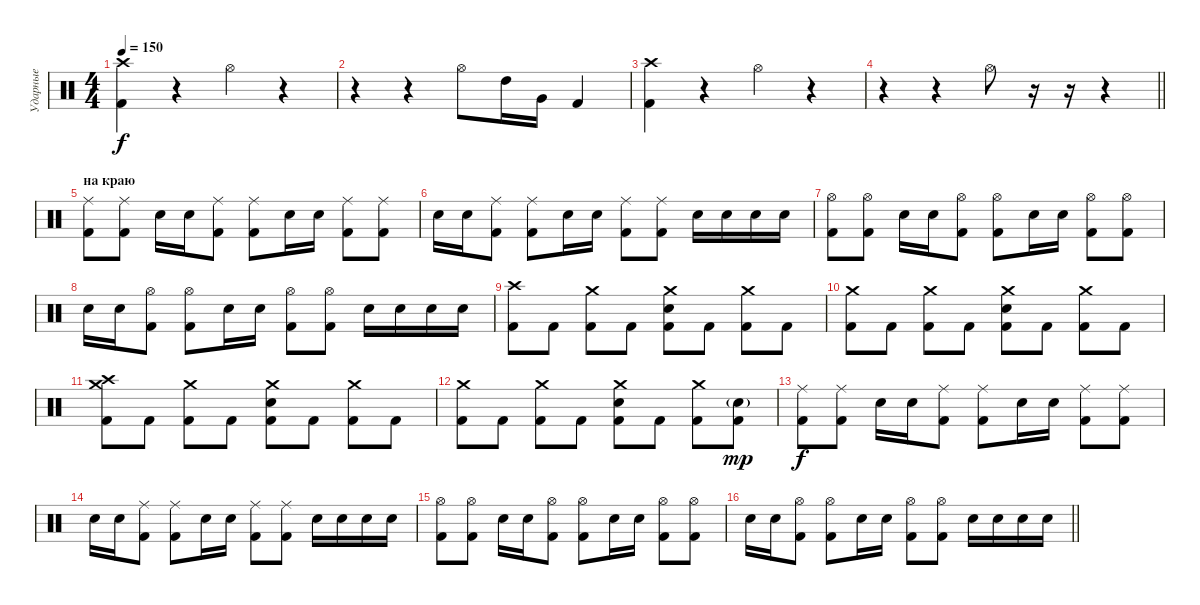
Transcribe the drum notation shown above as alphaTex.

\track ("Ударные" "Ударные") {instrument percussion}
\staff {score}
\articulation defaults
\ts (4 4)
\tempo 150
\clef neutral
\ks c
("Crash high (hit)" "Kick (hit) 2").4{dy f} r.4 "Hi-Hat (open)".4 r.4 |
r.4 r.4 "Hi-Hat (open)".8 "High Tom (hit)".16 "Very Low Tom (hit)".16 "Kick (hit) 2".4 |
("Crash high (hit)" "Kick (hit) 2").4 r.4 "Hi-Hat (open)".4 r.4 |
\barLineRight lightlight
r.4 r.4 "Hi-Hat (open)".8 r.16 r.16 r.4 |
\section ("" "на краю")
("Ride (middle)" "Kick (hit) 2").8 ("Ride (middle)" "Kick (hit) 2").8 "Electric Snare (hit)".16 "Electric Snare (hit)".16 ("Ride (middle)" "Kick (hit) 2").8 ("Ride (middle)" "Kick (hit) 2").8 "Electric Snare (hit)".16 "Electric Snare (hit)".16 ("Ride (middle)" "Kick (hit) 2").8 ("Ride (middle)" "Kick (hit) 2").8 |
"Electric Snare (hit)".16 "Electric Snare (hit)".16 ("Ride (middle)" "Kick (hit) 2").8 ("Ride (middle)" "Kick (hit) 2").8 "Electric Snare (hit)".16 "Electric Snare (hit)".16 ("Ride (middle)" "Kick (hit) 2").8 ("Ride (middle)" "Kick (hit) 2").8 "Electric Snare (hit)".16 "Electric Snare (hit)".16 "Electric Snare (hit)".16 "Electric Snare (hit)".16 |
("Hi-Hat (open)" "Kick (hit) 2").8 ("Hi-Hat (open)" "Kick (hit) 2").8 "Electric Snare (hit)".16 "Electric Snare (hit)".16 ("Hi-Hat (open)" "Kick (hit) 2").8 ("Hi-Hat (open)" "Kick (hit) 2").8 "Electric Snare (hit)".16 "Electric Snare (hit)".16 ("Hi-Hat (open)" "Kick (hit) 2").8 ("Hi-Hat (open)" "Kick (hit) 2").8 |
"Electric Snare (hit)".16 "Electric Snare (hit)".16 ("Hi-Hat (open)" "Kick (hit) 2").8 ("Hi-Hat (open)" "Kick (hit) 2").8 "Electric Snare (hit)".16 "Electric Snare (hit)".16 ("Hi-Hat (open)" "Kick (hit) 2").8 ("Hi-Hat (open)" "Kick (hit) 2").8 "Electric Snare (hit)".16 "Electric Snare (hit)".16 "Electric Snare (hit)".16 "Electric Snare (hit)".16 |
("Crash high (hit)" "Kick (hit) 2").8 "Kick (hit) 2".8 ("Crash medium (hit)" "Kick (hit) 2").8 "Kick (hit) 2".8 ("Crash medium (hit)" "Electric Snare (hit)" "Kick (hit) 2").8 "Kick (hit) 2".8 ("Crash medium (hit)" "Kick (hit) 2").8 "Kick (hit) 2".8 |
("Crash medium (hit)" "Kick (hit) 2").8 "Kick (hit) 2".8 ("Crash medium (hit)" "Kick (hit) 2").8 "Kick (hit) 2".8 ("Crash medium (hit)" "Electric Snare (hit)" "Kick (hit) 2").8 "Kick (hit) 2".8 ("Crash medium (hit)" "Kick (hit) 2").8 "Kick (hit) 2".8 |
("Crash medium (hit)" "Crash high (hit)" "Kick (hit) 2").8 "Kick (hit) 2".8 ("Crash medium (hit)" "Kick (hit) 2").8 "Kick (hit) 2".8 ("Crash medium (hit)" "Electric Snare (hit)" "Kick (hit) 2").8 "Kick (hit) 2".8 ("Crash medium (hit)" "Kick (hit) 2").8 "Kick (hit) 2".8 |
("Crash medium (hit)" "Kick (hit) 2").8 "Kick (hit) 2".8 ("Crash medium (hit)" "Kick (hit) 2").8 "Kick (hit) 2".8 ("Crash medium (hit)" "Electric Snare (hit)" "Kick (hit) 2").8 "Kick (hit) 2".8 ("Crash medium (hit)" "Kick (hit) 2").8 ("Electric Snare (hit)"{g} "Kick (hit) 2").8{dy mp} |
("Ride (middle)" "Kick (hit) 2").8{dy f} ("Ride (middle)" "Kick (hit) 2").8 "Electric Snare (hit)".16 "Electric Snare (hit)".16 ("Ride (middle)" "Kick (hit) 2").8 ("Ride (middle)" "Kick (hit) 2").8 "Electric Snare (hit)".16 "Electric Snare (hit)".16 ("Ride (middle)" "Kick (hit) 2").8 ("Ride (middle)" "Kick (hit) 2").8 |
"Electric Snare (hit)".16 "Electric Snare (hit)".16 ("Ride (middle)" "Kick (hit) 2").8 ("Ride (middle)" "Kick (hit) 2").8 "Electric Snare (hit)".16 "Electric Snare (hit)".16 ("Ride (middle)" "Kick (hit) 2").8 ("Ride (middle)" "Kick (hit) 2").8 "Electric Snare (hit)".16 "Electric Snare (hit)".16 "Electric Snare (hit)".16 "Electric Snare (hit)".16 |
("Hi-Hat (open)" "Kick (hit) 2").8 ("Hi-Hat (open)" "Kick (hit) 2").8 "Electric Snare (hit)".16 "Electric Snare (hit)".16 ("Hi-Hat (open)" "Kick (hit) 2").8 ("Hi-Hat (open)" "Kick (hit) 2").8 "Electric Snare (hit)".16 "Electric Snare (hit)".16 ("Hi-Hat (open)" "Kick (hit) 2").8 ("Hi-Hat (open)" "Kick (hit) 2").8 |
\barLineRight lightlight "Electric Snare (hit)".16 "Electric Snare (hit)".16
("Hi-Hat (open)" "Kick (hit) 2").8 ("Hi-Hat (open)" "Kick (hit) 2").8 "Electric Snare (hit)".16 "Electric Snare (hit)".16 ("Hi-Hat (open)" "Kick (hit) 2").8 ("Hi-Hat (open)" "Kick (hit) 2").8 "Electric Snare (hit)".16 "Electric Snare (hit)".16 "Electric Snare (hit)".16 "Electric Snare (hit)".16
